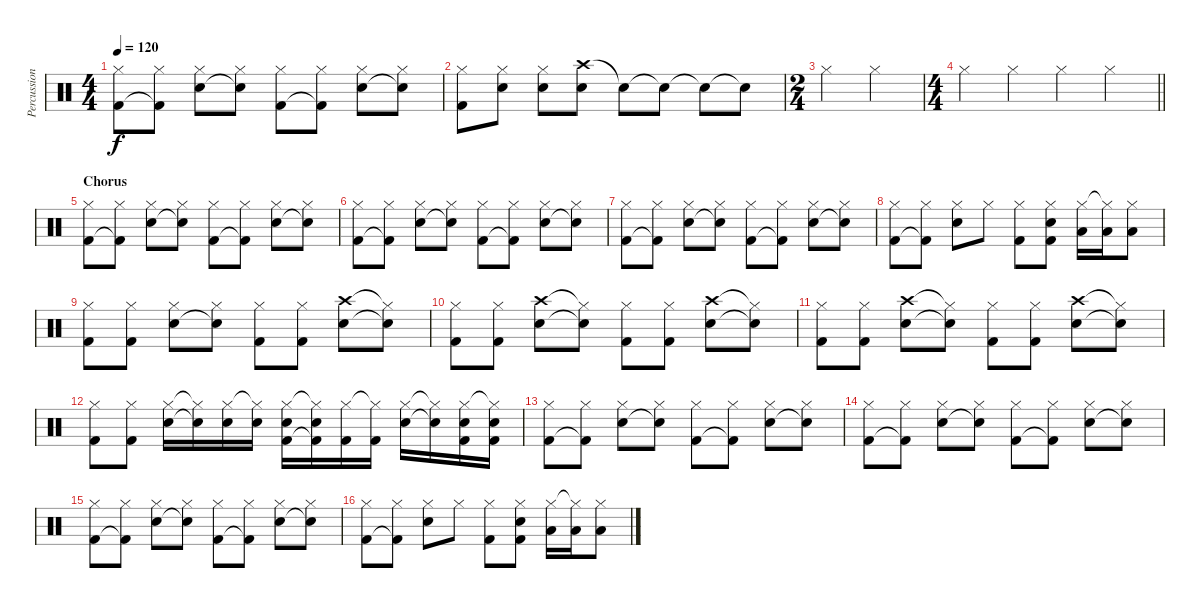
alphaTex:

\track ("Percussion" "Percussion") {instrument percussion}
\staff {score}
\articulation defaults
\ts (4 4)
\tempo 120
\clef neutral
\ks c
("Hi-Hat (closed)" "Kick (hit) 2").8{dy f} ("Hi-Hat (closed)" "Kick (hit) 2"{t}).8 ("Hi-Hat (closed)" "Electric Snare (hit)").8 ("Hi-Hat (closed)" "Electric Snare (hit)"{t}).8 ("Hi-Hat (closed)" "Kick (hit) 2").8 ("Hi-Hat (closed)" "Kick (hit) 2"{t}).8 ("Hi-Hat (closed)" "Electric Snare (hit)").8 ("Hi-Hat (closed)" "Electric Snare (hit)"{t}).8 |
("Hi-Hat (closed)" "Kick (hit) 2").8 ("Hi-Hat (closed)" "Electric Snare (hit)").8 ("Hi-Hat (closed)" "Electric Snare (hit)").8 ("Crash high (hit)" "Electric Snare (hit)").8 "Snare (hit)"{t}.8 "Snare (hit)"{t}.8 "Snare (hit)"{t}.8 "Snare (hit)"{t}.8 |
\ts (2 4)
"Hi-Hat (closed)".4 "Hi-Hat (closed)".4 |
\ts (4 4)
\barLineRight lightlight "Hi-Hat (closed)".4 "Hi-Hat (closed)".4 "Hi-Hat (closed)".4 "Hi-Hat (closed)".4
|
\section ("" "Chorus")
("Hi-Hat (closed)" "Kick (hit) 2").8 ("Hi-Hat (closed)" "Kick (hit) 2"{t}).8 ("Hi-Hat (closed)" "Electric Snare (hit)").8 ("Hi-Hat (closed)" "Electric Snare (hit)"{t}).8 ("Hi-Hat (closed)" "Kick (hit) 2").8 ("Hi-Hat (closed)" "Kick (hit) 2"{t}).8 ("Hi-Hat (closed)" "Electric Snare (hit)").8 ("Hi-Hat (closed)" "Electric Snare (hit)"{t}).8 |
("Hi-Hat (closed)" "Kick (hit) 2").8 ("Hi-Hat (closed)" "Kick (hit) 2"{t}).8 ("Hi-Hat (closed)" "Electric Snare (hit)").8 ("Hi-Hat (closed)" "Electric Snare (hit)"{t}).8 ("Hi-Hat (closed)" "Kick (hit) 2").8 ("Hi-Hat (closed)" "Kick (hit) 2"{t}).8 ("Hi-Hat (closed)" "Electric Snare (hit)").8 ("Hi-Hat (closed)" "Electric Snare (hit)"{t}).8 |
("Hi-Hat (closed)" "Kick (hit) 2").8 ("Hi-Hat (closed)" "Kick (hit) 2"{t}).8 ("Hi-Hat (closed)" "Electric Snare (hit)").8 ("Hi-Hat (closed)" "Electric Snare (hit)"{t}).8 ("Hi-Hat (closed)" "Kick (hit) 2").8 ("Hi-Hat (closed)" "Kick (hit) 2"{t}).8 ("Hi-Hat (closed)" "Electric Snare (hit)").8 ("Hi-Hat (closed)" "Electric Snare (hit)"{t}).8 |
("Hi-Hat (closed)" "Kick (hit) 2").8 ("Hi-Hat (closed)" "Kick (hit) 2"{t}).8 ("Hi-Hat (closed)" "Electric Snare (hit)").8 "Hi-Hat (closed)".8 ("Hi-Hat (closed)" "Kick (hit) 2").8 ("Hi-Hat (closed)" "Electric Snare (hit)" "Kick (hit) 2").8 ("Hi-Hat (closed)" "Low Floor Tom (hit)").16 ("Hi-Hat (closed)"{t} "Low Floor Tom (hit)").16 ("Hi-Hat (closed)" "Low Floor Tom (hit)").8 |
("Hi-Hat (closed)" "Kick (hit) 2").8 ("Hi-Hat (closed)" "Kick (hit) 2").8 ("Hi-Hat (closed)" "Electric Snare (hit)").8 ("Hi-Hat (closed)" "Electric Snare (hit)"{t}).8 ("Hi-Hat (closed)" "Kick (hit) 2").8 ("Hi-Hat (closed)" "Kick (hit) 2").8 ("Crash high (hit)" "Electric Snare (hit)").8 ("Hi-Hat (closed)"{t} "Electric Snare (hit)"{t}).8 |
("Hi-Hat (closed)" "Kick (hit) 2").8 ("Hi-Hat (closed)" "Kick (hit) 2").8 ("Crash high (hit)" "Electric Snare (hit)").8 ("Hi-Hat (closed)"{t} "Electric Snare (hit)"{t}).8 ("Hi-Hat (closed)" "Kick (hit) 2").8 ("Hi-Hat (closed)" "Kick (hit) 2").8 ("Crash high (hit)" "Electric Snare (hit)").8 ("Hi-Hat (closed)"{t} "Electric Snare (hit)"{t}).8 |
("Hi-Hat (closed)" "Kick (hit) 2").8 ("Hi-Hat (closed)" "Kick (hit) 2").8 ("Crash high (hit)" "Electric Snare (hit)").8 ("Hi-Hat (closed)"{t} "Electric Snare (hit)"{t}).8 ("Hi-Hat (closed)" "Kick (hit) 2").8 ("Hi-Hat (closed)" "Kick (hit) 2").8 ("Crash high (hit)" "Electric Snare (hit)").8 ("Hi-Hat (closed)"{t} "Electric Snare (hit)"{t}).8 |
("Hi-Hat (closed)" "Kick (hit) 2").8 ("Hi-Hat (closed)" "Kick (hit) 2").8 ("Hi-Hat (closed)" "Electric Snare (hit)").16 ("Hi-Hat (closed)"{t} "Electric Snare (hit)"{t}).16 ("Hi-Hat (closed)" "Electric Snare (hit)").16 ("Hi-Hat (closed)"{t} "Electric Snare (hit)").16 ("Hi-Hat (closed)" "Electric Snare (hit)" "Kick (hit) 2").16 ("Hi-Hat (closed)"{t} "Electric Snare (hit)" "Kick (hit) 2"{t}).16 ("Hi-Hat (closed)" "Kick (hit) 2").16 ("Hi-Hat (closed)"{t} "Kick (hit) 2").16 ("Hi-Hat (closed)" "Electric Snare (hit)").16 ("Hi-Hat (closed)"{t} "Electric Snare (hit)"{t}).16 ("Hi-Hat (closed)" "Electric Snare (hit)" "Kick (hit) 2").16 ("Hi-Hat (closed)"{t} "Electric Snare (hit)" "Kick (hit) 2").16 |
("Hi-Hat (closed)" "Kick (hit) 2").8 ("Hi-Hat (closed)" "Kick (hit) 2"{t}).8 ("Hi-Hat (closed)" "Electric Snare (hit)").8 ("Hi-Hat (closed)" "Electric Snare (hit)"{t}).8 ("Hi-Hat (closed)" "Kick (hit) 2").8 ("Hi-Hat (closed)" "Kick (hit) 2"{t}).8 ("Hi-Hat (closed)" "Electric Snare (hit)").8 ("Hi-Hat (closed)" "Electric Snare (hit)"{t}).8 |
("Hi-Hat (closed)" "Kick (hit) 2").8 ("Hi-Hat (closed)" "Kick (hit) 2"{t}).8 ("Hi-Hat (closed)" "Electric Snare (hit)").8 ("Hi-Hat (closed)" "Electric Snare (hit)"{t}).8 ("Hi-Hat (closed)" "Kick (hit) 2").8 ("Hi-Hat (closed)" "Kick (hit) 2"{t}).8 ("Hi-Hat (closed)" "Electric Snare (hit)").8 ("Hi-Hat (closed)" "Electric Snare (hit)"{t}).8 |
("Hi-Hat (closed)" "Kick (hit) 2").8 ("Hi-Hat (closed)" "Kick (hit) 2"{t}).8 ("Hi-Hat (closed)" "Electric Snare (hit)").8 ("Hi-Hat (closed)" "Electric Snare (hit)"{t}).8 ("Hi-Hat (closed)" "Kick (hit) 2").8 ("Hi-Hat (closed)" "Kick (hit) 2"{t}).8 ("Hi-Hat (closed)" "Electric Snare (hit)").8 ("Hi-Hat (closed)" "Electric Snare (hit)"{t}).8 |
("Hi-Hat (closed)" "Kick (hit) 2").8 ("Hi-Hat (closed)" "Kick (hit) 2"{t}).8 ("Hi-Hat (closed)" "Electric Snare (hit)").8 "Hi-Hat (closed)".8 ("Hi-Hat (closed)" "Kick (hit) 2").8 ("Hi-Hat (closed)" "Electric Snare (hit)" "Kick (hit) 2").8 ("Hi-Hat (closed)" "Low Floor Tom (hit)").16 ("Hi-Hat (closed)"{t} "Low Floor Tom (hit)").16 ("Hi-Hat (closed)" "Low Floor Tom (hit)").8
